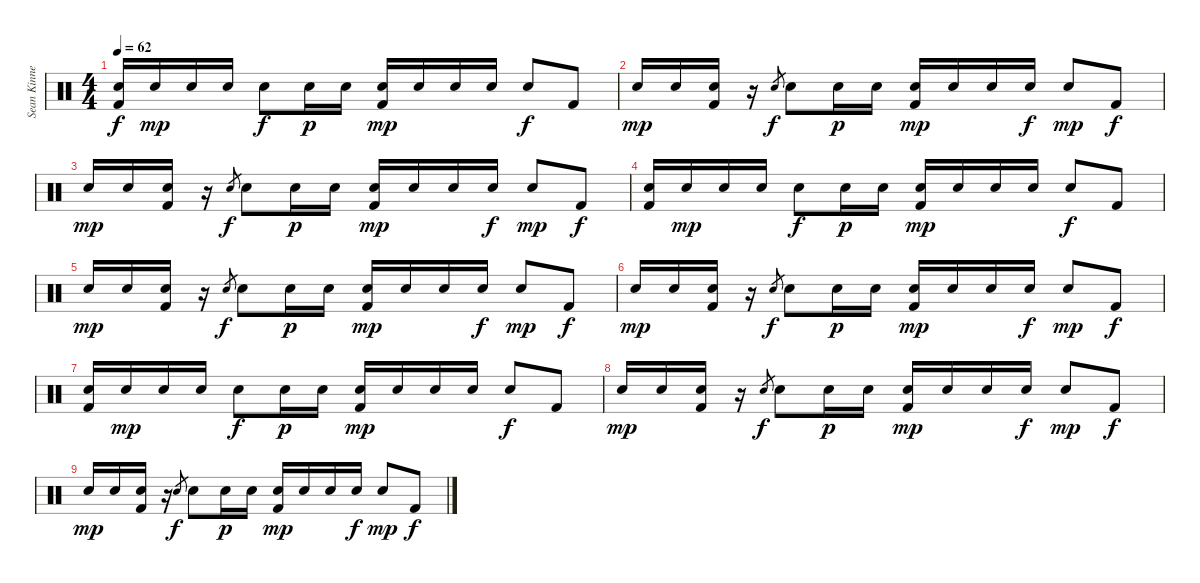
\track ("Sean Kinney - Drums" "Sean Kinne") {instrument percussion}
\staff {score}
\articulation defaults
\ts (4 4)
\tempo 62
\clef neutral
\ks c
("Electric Snare (hit)" "Kick (hit) 2").16{dy f} "Electric Snare (hit)".16{dy mp} "Electric Snare (hit)".16 "Electric Snare (hit)".16 "Electric Snare (hit)".8{dy f} "Electric Snare (hit)".16{dy p} "Electric Snare (hit)".16 ("Electric Snare (hit)" "Kick (hit) 2").16{dy mp} "Electric Snare (hit)".16 "Electric Snare (hit)".16 "Electric Snare (hit)".16 "Electric Snare (hit)".8{dy f} "Kick (hit) 2".8 |
"Electric Snare (hit)".16{dy mp} "Electric Snare (hit)".16 ("Electric Snare (hit)" "Kick (hit) 2").16 r.16 "Electric Snare (hit)".8{gr dy f} "Electric Snare (hit)".8 "Electric Snare (hit)".16{dy p} "Electric Snare (hit)".16 ("Electric Snare (hit)" "Kick (hit) 2").16{dy mp} "Electric Snare (hit)".16 "Electric Snare (hit)".16 "Electric Snare (hit)".16{dy f} "Electric Snare (hit)".8{dy mp} "Kick (hit) 2".8{dy f} |
"Electric Snare (hit)".16{dy mp} "Electric Snare (hit)".16 ("Electric Snare (hit)" "Kick (hit) 2").16 r.16 "Electric Snare (hit)".8{gr dy f} "Electric Snare (hit)".8 "Electric Snare (hit)".16{dy p} "Electric Snare (hit)".16 ("Electric Snare (hit)" "Kick (hit) 2").16{dy mp} "Electric Snare (hit)".16 "Electric Snare (hit)".16 "Electric Snare (hit)".16{dy f} "Electric Snare (hit)".8{dy mp} "Kick (hit) 2".8{dy f} |
("Electric Snare (hit)" "Kick (hit) 2").16 "Electric Snare (hit)".16{dy mp} "Electric Snare (hit)".16 "Electric Snare (hit)".16 "Electric Snare (hit)".8{dy f} "Electric Snare (hit)".16{dy p} "Electric Snare (hit)".16 ("Electric Snare (hit)" "Kick (hit) 2").16{dy mp} "Electric Snare (hit)".16 "Electric Snare (hit)".16 "Electric Snare (hit)".16 "Electric Snare (hit)".8{dy f} "Kick (hit) 2".8 |
"Electric Snare (hit)".16{dy mp} "Electric Snare (hit)".16 ("Electric Snare (hit)" "Kick (hit) 2").16 r.16 "Electric Snare (hit)".8{gr dy f} "Electric Snare (hit)".8 "Electric Snare (hit)".16{dy p} "Electric Snare (hit)".16 ("Electric Snare (hit)" "Kick (hit) 2").16{dy mp} "Electric Snare (hit)".16 "Electric Snare (hit)".16 "Electric Snare (hit)".16{dy f} "Electric Snare (hit)".8{dy mp} "Kick (hit) 2".8{dy f} |
"Electric Snare (hit)".16{dy mp} "Electric Snare (hit)".16 ("Electric Snare (hit)" "Kick (hit) 2").16 r.16 "Electric Snare (hit)".8{gr dy f} "Electric Snare (hit)".8 "Electric Snare (hit)".16{dy p} "Electric Snare (hit)".16 ("Electric Snare (hit)" "Kick (hit) 2").16{dy mp} "Electric Snare (hit)".16 "Electric Snare (hit)".16 "Electric Snare (hit)".16{dy f} "Electric Snare (hit)".8{dy mp} "Kick (hit) 2".8{dy f} |
("Electric Snare (hit)" "Kick (hit) 2").16 "Electric Snare (hit)".16{dy mp} "Electric Snare (hit)".16 "Electric Snare (hit)".16 "Electric Snare (hit)".8{dy f} "Electric Snare (hit)".16{dy p} "Electric Snare (hit)".16 ("Electric Snare (hit)" "Kick (hit) 2").16{dy mp} "Electric Snare (hit)".16 "Electric Snare (hit)".16 "Electric Snare (hit)".16 "Electric Snare (hit)".8{dy f} "Kick (hit) 2".8 |
"Electric Snare (hit)".16{dy mp} "Electric Snare (hit)".16 ("Electric Snare (hit)" "Kick (hit) 2").16 r.16 "Electric Snare (hit)".8{gr dy f} "Electric Snare (hit)".8 "Electric Snare (hit)".16{dy p} "Electric Snare (hit)".16 ("Electric Snare (hit)" "Kick (hit) 2").16{dy mp} "Electric Snare (hit)".16 "Electric Snare (hit)".16 "Electric Snare (hit)".16{dy f} "Electric Snare (hit)".8{dy mp} "Kick (hit) 2".8{dy f} |
"Electric Snare (hit)".16{dy mp} "Electric Snare (hit)".16 ("Electric Snare (hit)" "Kick (hit) 2").16 r.16 "Electric Snare (hit)".8{gr dy f} "Electric Snare (hit)".8 "Electric Snare (hit)".16{dy p} "Electric Snare (hit)".16 ("Electric Snare (hit)" "Kick (hit) 2").16{dy mp} "Electric Snare (hit)".16 "Electric Snare (hit)".16 "Electric Snare (hit)".16{dy f} "Electric Snare (hit)".8{dy mp} "Kick (hit) 2".8{dy f}
